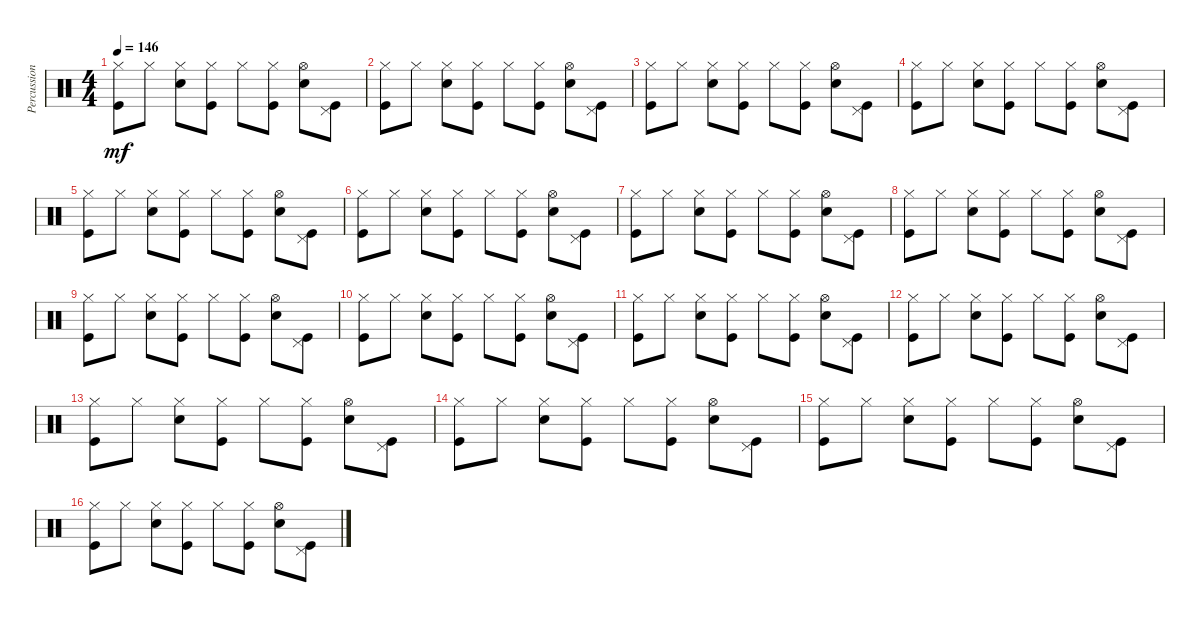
\track ("Percussion" "Percussion") {instrument percussion}
\staff {score}
\articulation defaults
\ts (4 4)
\tempo 146
\clef neutral
\ks c
("Hi-Hat (closed)" "Kick (hit)").8{dy mf} "Hi-Hat (closed)".8 ("Hi-Hat (closed)" "Snare (hit) 2").8 ("Hi-Hat (closed)" "Kick (hit)").8 "Hi-Hat (closed)".8 ("Hi-Hat (closed)" "Kick (hit)").8 ("Hi-Hat (open)" "Snare (hit) 2").8 ("Pedal Hi-Hat (hit)" "Kick (hit)").8 |
("Hi-Hat (closed)" "Kick (hit)").8 "Hi-Hat (closed)".8 ("Hi-Hat (closed)" "Snare (hit) 2").8 ("Hi-Hat (closed)" "Kick (hit)").8 "Hi-Hat (closed)".8 ("Hi-Hat (closed)" "Kick (hit)").8 ("Hi-Hat (open)" "Snare (hit) 2").8 ("Pedal Hi-Hat (hit)" "Kick (hit)").8 |
("Hi-Hat (closed)" "Kick (hit)").8 "Hi-Hat (closed)".8 ("Hi-Hat (closed)" "Snare (hit) 2").8 ("Hi-Hat (closed)" "Kick (hit)").8 "Hi-Hat (closed)".8 ("Hi-Hat (closed)" "Kick (hit)").8 ("Hi-Hat (open)" "Snare (hit) 2").8 ("Pedal Hi-Hat (hit)" "Kick (hit)").8 |
("Hi-Hat (closed)" "Kick (hit)").8 "Hi-Hat (closed)".8 ("Hi-Hat (closed)" "Snare (hit) 2").8 ("Hi-Hat (closed)" "Kick (hit)").8 "Hi-Hat (closed)".8 ("Hi-Hat (closed)" "Kick (hit)").8 ("Hi-Hat (open)" "Snare (hit) 2").8 ("Pedal Hi-Hat (hit)" "Kick (hit)").8 |
("Hi-Hat (closed)" "Kick (hit)").8 "Hi-Hat (closed)".8 ("Hi-Hat (closed)" "Snare (hit) 2").8 ("Hi-Hat (closed)" "Kick (hit)").8 "Hi-Hat (closed)".8 ("Hi-Hat (closed)" "Kick (hit)").8 ("Hi-Hat (open)" "Snare (hit) 2").8 ("Pedal Hi-Hat (hit)" "Kick (hit)").8 |
("Hi-Hat (closed)" "Kick (hit)").8 "Hi-Hat (closed)".8 ("Hi-Hat (closed)" "Snare (hit) 2").8 ("Hi-Hat (closed)" "Kick (hit)").8 "Hi-Hat (closed)".8 ("Hi-Hat (closed)" "Kick (hit)").8 ("Hi-Hat (open)" "Snare (hit) 2").8 ("Pedal Hi-Hat (hit)" "Kick (hit)").8 |
("Hi-Hat (closed)" "Kick (hit)").8 "Hi-Hat (closed)".8 ("Hi-Hat (closed)" "Snare (hit) 2").8 ("Hi-Hat (closed)" "Kick (hit)").8 "Hi-Hat (closed)".8 ("Hi-Hat (closed)" "Kick (hit)").8 ("Hi-Hat (open)" "Snare (hit) 2").8 ("Pedal Hi-Hat (hit)" "Kick (hit)").8 |
("Hi-Hat (closed)" "Kick (hit)").8 "Hi-Hat (closed)".8 ("Hi-Hat (closed)" "Snare (hit) 2").8 ("Hi-Hat (closed)" "Kick (hit)").8 "Hi-Hat (closed)".8 ("Hi-Hat (closed)" "Kick (hit)").8 ("Hi-Hat (open)" "Snare (hit) 2").8 ("Pedal Hi-Hat (hit)" "Kick (hit)").8 |
("Hi-Hat (closed)" "Kick (hit)").8 "Hi-Hat (closed)".8 ("Hi-Hat (closed)" "Snare (hit) 2").8 ("Hi-Hat (closed)" "Kick (hit)").8 "Hi-Hat (closed)".8 ("Hi-Hat (closed)" "Kick (hit)").8 ("Hi-Hat (open)" "Snare (hit) 2").8 ("Pedal Hi-Hat (hit)" "Kick (hit)").8 |
("Hi-Hat (closed)" "Kick (hit)").8 "Hi-Hat (closed)".8 ("Hi-Hat (closed)" "Snare (hit) 2").8 ("Hi-Hat (closed)" "Kick (hit)").8 "Hi-Hat (closed)".8 ("Hi-Hat (closed)" "Kick (hit)").8 ("Hi-Hat (open)" "Snare (hit) 2").8 ("Pedal Hi-Hat (hit)" "Kick (hit)").8 |
("Hi-Hat (closed)" "Kick (hit)").8 "Hi-Hat (closed)".8 ("Hi-Hat (closed)" "Snare (hit) 2").8 ("Hi-Hat (closed)" "Kick (hit)").8 "Hi-Hat (closed)".8 ("Hi-Hat (closed)" "Kick (hit)").8 ("Hi-Hat (open)" "Snare (hit) 2").8 ("Pedal Hi-Hat (hit)" "Kick (hit)").8 |
("Hi-Hat (closed)" "Kick (hit)").8 "Hi-Hat (closed)".8 ("Hi-Hat (closed)" "Snare (hit) 2").8 ("Hi-Hat (closed)" "Kick (hit)").8 "Hi-Hat (closed)".8 ("Hi-Hat (closed)" "Kick (hit)").8 ("Hi-Hat (open)" "Snare (hit) 2").8 ("Pedal Hi-Hat (hit)" "Kick (hit)").8 |
("Hi-Hat (closed)" "Kick (hit)").8 "Hi-Hat (closed)".8 ("Hi-Hat (closed)" "Snare (hit) 2").8 ("Hi-Hat (closed)" "Kick (hit)").8 "Hi-Hat (closed)".8 ("Hi-Hat (closed)" "Kick (hit)").8 ("Hi-Hat (open)" "Snare (hit) 2").8 ("Pedal Hi-Hat (hit)" "Kick (hit)").8 |
("Hi-Hat (closed)" "Kick (hit)").8 "Hi-Hat (closed)".8 ("Hi-Hat (closed)" "Snare (hit) 2").8 ("Hi-Hat (closed)" "Kick (hit)").8 "Hi-Hat (closed)".8 ("Hi-Hat (closed)" "Kick (hit)").8 ("Hi-Hat (open)" "Snare (hit) 2").8 ("Pedal Hi-Hat (hit)" "Kick (hit)").8 |
("Hi-Hat (closed)" "Kick (hit)").8 "Hi-Hat (closed)".8 ("Hi-Hat (closed)" "Snare (hit) 2").8 ("Hi-Hat (closed)" "Kick (hit)").8 "Hi-Hat (closed)".8 ("Hi-Hat (closed)" "Kick (hit)").8 ("Hi-Hat (open)" "Snare (hit) 2").8 ("Pedal Hi-Hat (hit)" "Kick (hit)").8 |
("Hi-Hat (closed)" "Kick (hit)").8 "Hi-Hat (closed)".8 ("Hi-Hat (closed)" "Snare (hit) 2").8 ("Hi-Hat (closed)" "Kick (hit)").8 "Hi-Hat (closed)".8 ("Hi-Hat (closed)" "Kick (hit)").8 ("Hi-Hat (open)" "Snare (hit) 2").8 ("Pedal Hi-Hat (hit)" "Kick (hit)").8
